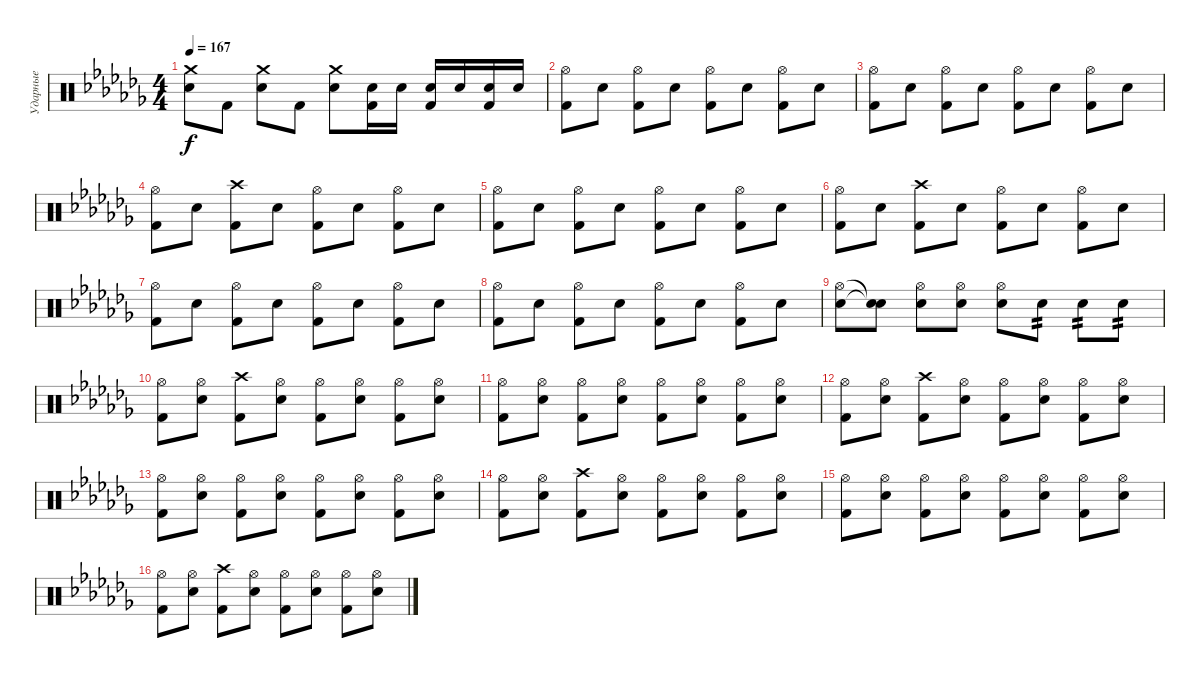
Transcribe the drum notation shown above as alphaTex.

\track ("Ударные" "Ударные") {instrument percussion}
\staff {score}
\articulation defaults
\ts (4 4)
\tempo 167
\clef neutral
\ks abminor
("Crash medium (hit)" "Electric Snare (hit)").8{dy f} "Kick (hit) 2".8 ("Crash medium (hit)" "Electric Snare (hit)").8 "Kick (hit) 2".8 ("Crash medium (hit)" "Electric Snare (hit)").8 ("Electric Snare (hit)" "Kick (hit) 2").16 "Electric Snare (hit)".16 ("Electric Snare (hit)" "Kick (hit) 2").16 "Electric Snare (hit)".16 ("Electric Snare (hit)" "Kick (hit) 2").16 "Electric Snare (hit)".16 |
("Hi-Hat (open)" "Kick (hit) 2").8 "Electric Snare (hit)".8 ("Hi-Hat (open)" "Kick (hit) 2").8 "Electric Snare (hit)".8 ("Hi-Hat (open)" "Kick (hit) 2").8 "Electric Snare (hit)".8 ("Hi-Hat (open)" "Kick (hit) 2").8 "Electric Snare (hit)".8 |
("Hi-Hat (open)" "Kick (hit) 2").8 "Electric Snare (hit)".8 ("Hi-Hat (open)" "Kick (hit) 2").8 "Electric Snare (hit)".8 ("Hi-Hat (open)" "Kick (hit) 2").8 "Electric Snare (hit)".8 ("Hi-Hat (open)" "Kick (hit) 2").8 "Electric Snare (hit)".8 |
("Hi-Hat (open)" "Kick (hit) 2").8 "Electric Snare (hit)".8 ("Crash high (hit)" "Kick (hit) 2").8 "Electric Snare (hit)".8 ("Hi-Hat (open)" "Kick (hit) 2").8 "Electric Snare (hit)".8 ("Hi-Hat (open)" "Kick (hit) 2").8 "Electric Snare (hit)".8 |
("Hi-Hat (open)" "Kick (hit) 2").8 "Electric Snare (hit)".8 ("Hi-Hat (open)" "Kick (hit) 2").8 "Electric Snare (hit)".8 ("Hi-Hat (open)" "Kick (hit) 2").8 "Electric Snare (hit)".8 ("Hi-Hat (open)" "Kick (hit) 2").8 "Electric Snare (hit)".8 |
("Hi-Hat (open)" "Kick (hit) 2").8 "Electric Snare (hit)".8 ("Crash high (hit)" "Kick (hit) 2").8 "Electric Snare (hit)".8 ("Hi-Hat (open)" "Kick (hit) 2").8 "Electric Snare (hit)".8 ("Hi-Hat (open)" "Kick (hit) 2").8 "Electric Snare (hit)".8 |
("Hi-Hat (open)" "Kick (hit) 2").8 "Electric Snare (hit)".8 ("Hi-Hat (open)" "Kick (hit) 2").8 "Electric Snare (hit)".8 ("Hi-Hat (open)" "Kick (hit) 2").8 "Electric Snare (hit)".8 ("Hi-Hat (open)" "Kick (hit) 2").8 "Electric Snare (hit)".8 |
("Hi-Hat (open)" "Kick (hit) 2").8 "Electric Snare (hit)".8 ("Hi-Hat (open)" "Kick (hit) 2").8 "Electric Snare (hit)".8 ("Hi-Hat (open)" "Kick (hit) 2").8 "Electric Snare (hit)".8 ("Hi-Hat (open)" "Kick (hit) 2").8 "Electric Snare (hit)".8 |
("Hi-Hat (open)" "Electric Snare (hit)").8 ("Snare (hit)"{t} "Snare (hit)"{t}).8 ("Hi-Hat (open)" "Electric Snare (hit)").8 ("Hi-Hat (open)" "Electric Snare (hit)").8 ("Hi-Hat (open)" "Electric Snare (hit)").8 "Electric Snare (hit)".8{tp 2} "Electric Snare (hit)".8{tp 2} "Electric Snare (hit)".8{tp 2} |
("Hi-Hat (open)" "Kick (hit) 2").8 ("Hi-Hat (open)" "Electric Snare (hit)").8 ("Crash high (hit)" "Kick (hit) 2").8 ("Hi-Hat (open)" "Electric Snare (hit)").8 ("Hi-Hat (open)" "Kick (hit) 2").8 ("Hi-Hat (open)" "Electric Snare (hit)").8 ("Hi-Hat (open)" "Kick (hit) 2").8 ("Hi-Hat (open)" "Electric Snare (hit)").8 |
("Hi-Hat (open)" "Kick (hit) 2").8 ("Hi-Hat (open)" "Electric Snare (hit)").8 ("Hi-Hat (open)" "Kick (hit) 2").8 ("Hi-Hat (open)" "Electric Snare (hit)").8 ("Hi-Hat (open)" "Kick (hit) 2").8 ("Hi-Hat (open)" "Electric Snare (hit)").8 ("Hi-Hat (open)" "Kick (hit) 2").8 ("Hi-Hat (open)" "Electric Snare (hit)").8 |
("Hi-Hat (open)" "Kick (hit) 2").8 ("Hi-Hat (open)" "Electric Snare (hit)").8 ("Crash high (hit)" "Kick (hit) 2").8 ("Hi-Hat (open)" "Electric Snare (hit)").8 ("Hi-Hat (open)" "Kick (hit) 2").8 ("Hi-Hat (open)" "Electric Snare (hit)").8 ("Hi-Hat (open)" "Kick (hit) 2").8 ("Hi-Hat (open)" "Electric Snare (hit)").8 |
("Hi-Hat (open)" "Kick (hit) 2").8 ("Hi-Hat (open)" "Electric Snare (hit)").8 ("Hi-Hat (open)" "Kick (hit) 2").8 ("Hi-Hat (open)" "Electric Snare (hit)").8 ("Hi-Hat (open)" "Kick (hit) 2").8 ("Hi-Hat (open)" "Electric Snare (hit)").8 ("Hi-Hat (open)" "Kick (hit) 2").8 ("Hi-Hat (open)" "Electric Snare (hit)").8 |
("Hi-Hat (open)" "Kick (hit) 2").8 ("Hi-Hat (open)" "Electric Snare (hit)").8 ("Crash high (hit)" "Kick (hit) 2").8 ("Hi-Hat (open)" "Electric Snare (hit)").8 ("Hi-Hat (open)" "Kick (hit) 2").8 ("Hi-Hat (open)" "Electric Snare (hit)").8 ("Hi-Hat (open)" "Kick (hit) 2").8 ("Hi-Hat (open)" "Electric Snare (hit)").8 |
("Hi-Hat (open)" "Kick (hit) 2").8 ("Hi-Hat (open)" "Electric Snare (hit)").8 ("Hi-Hat (open)" "Kick (hit) 2").8 ("Hi-Hat (open)" "Electric Snare (hit)").8 ("Hi-Hat (open)" "Kick (hit) 2").8 ("Hi-Hat (open)" "Electric Snare (hit)").8 ("Hi-Hat (open)" "Kick (hit) 2").8 ("Hi-Hat (open)" "Electric Snare (hit)").8 |
("Hi-Hat (open)" "Kick (hit) 2").8 ("Hi-Hat (open)" "Electric Snare (hit)").8 ("Crash high (hit)" "Kick (hit) 2").8 ("Hi-Hat (open)" "Electric Snare (hit)").8 ("Hi-Hat (open)" "Kick (hit) 2").8 ("Hi-Hat (open)" "Electric Snare (hit)").8 ("Hi-Hat (open)" "Kick (hit) 2").8 ("Hi-Hat (open)" "Electric Snare (hit)").8
